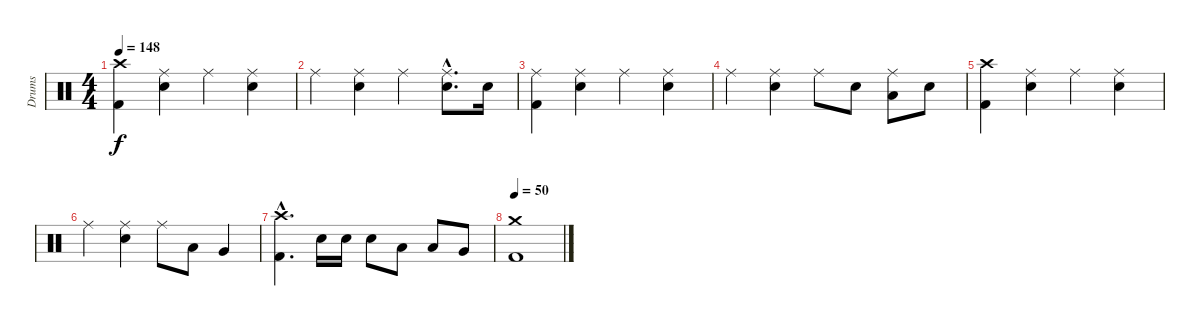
\track ("Drums" "Drums") {instrument percussion}
\staff {score}
\articulation defaults
\ts (4 4)
\tempo 148
\clef neutral
\ks c
("Crash high (hit)" "Kick (hit) 2").4{dy f} ("Ride (middle)" "Electric Snare (hit)").4 "Ride (middle)".4 ("Ride (middle)" "Electric Snare (hit)").4 |
"Ride (middle)".4 ("Ride (middle)" "Electric Snare (hit)").4 "Ride (middle)".4 ("Ride (middle)"{hac} "Electric Snare (hit)"{hac}).8{d} "Electric Snare (hit)".16 |
("Ride (middle)" "Kick (hit) 2").4 ("Ride (middle)" "Electric Snare (hit)").4 "Ride (middle)".4 ("Ride (middle)" "Electric Snare (hit)").4 |
"Ride (middle)".4 ("Ride (middle)" "Electric Snare (hit)").4 "Ride (middle)".8 "Electric Snare (hit)".8 ("Ride (middle)" "Low Tom (hit)").8 "Electric Snare (hit)".8 |
("Crash high (hit)" "Kick (hit) 2").4 ("Ride (middle)" "Electric Snare (hit)").4 "Ride (middle)".4 ("Ride (middle)" "Electric Snare (hit)").4 |
"Ride (middle)".4 ("Ride (middle)" "Electric Snare (hit)").4 "Ride (middle)".8 "Low Tom (hit)".8 "Very Low Tom (hit)".4 |
("Crash high (hit)"{hac} "Kick (hit) 2"{hac}).4{d} "Electric Snare (hit)".16 "Electric Snare (hit)".16 "Electric Snare (hit)".8 "Low Tom (hit)".8 "Low Tom (hit)".8 "Very Low Tom (hit)".8 |
\tempo 50
("Crash medium (hit)" "Kick (hit) 2").1
